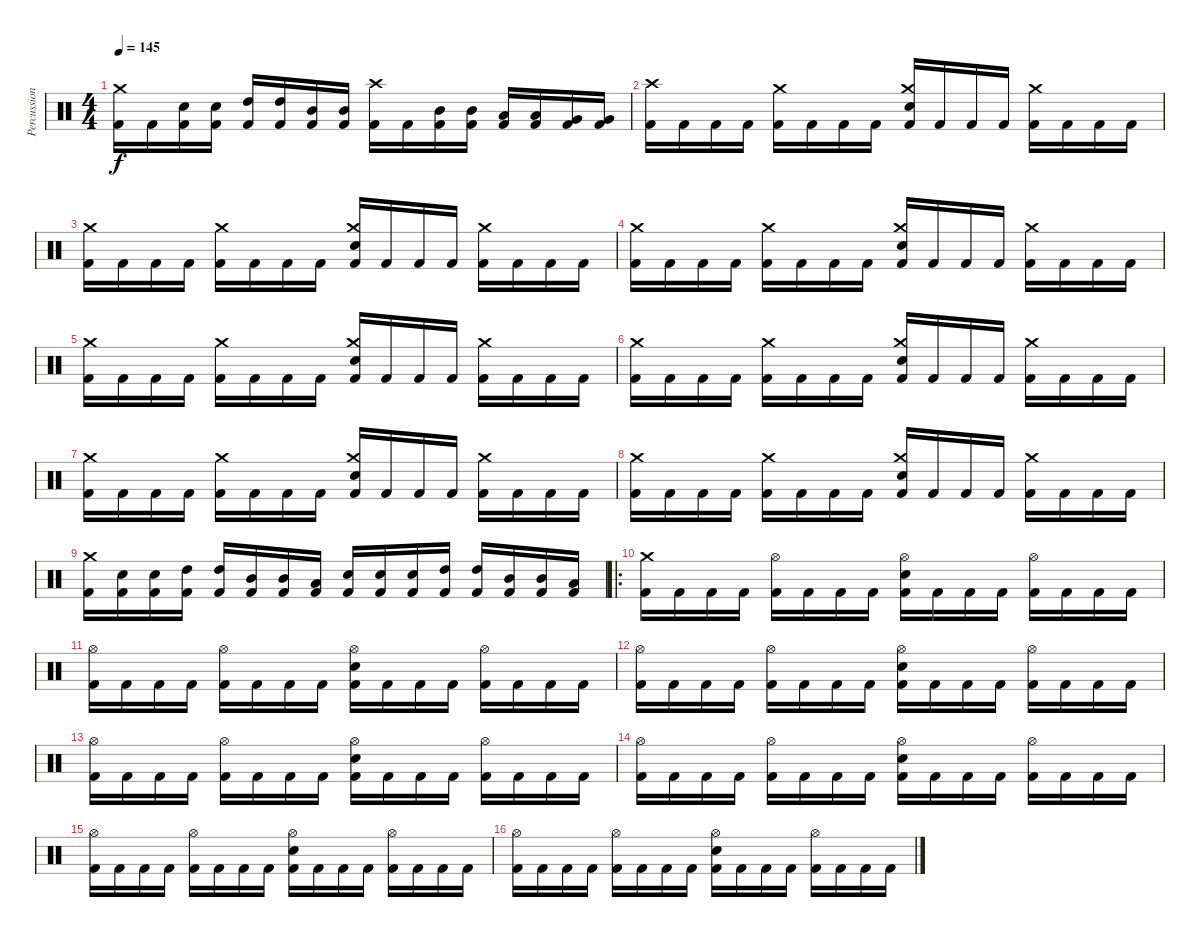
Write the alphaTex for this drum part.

\track ("Percussion" "Percussion") {instrument percussion}
\staff {score}
\articulation defaults
\ts (4 4)
\tempo 145
\clef neutral
\ks c
("Kick (hit) 2" "Crash medium (hit)").16{dy f} "Kick (hit) 2".16 ("Kick (hit) 2" "Electric Snare (hit)").16 ("Kick (hit) 2" "Electric Snare (hit)").16 ("Kick (hit) 2" "High Tom (hit)").16 ("Kick (hit) 2" "High Tom (hit)").16 ("Kick (hit) 2" "Mid Tom (hit)").16 ("Kick (hit) 2" "Mid Tom (hit)").16 ("Kick (hit) 2" "Crash high (hit)").16 "Kick (hit) 2".16 ("Kick (hit) 2" "Mid Tom (hit)").16 ("Kick (hit) 2" "Mid Tom (hit)").16 ("Kick (hit) 2" "Low Tom (hit)").16 ("Kick (hit) 2" "Low Tom (hit)").16 ("Kick (hit) 2" "Very Low Tom (hit)").16 ("Kick (hit) 2" "Very Low Tom (hit)").16 |
("Kick (hit) 2" "Crash high (hit)").16 "Kick (hit) 2".16 "Kick (hit) 2".16 "Kick (hit) 2".16 ("Kick (hit) 2" "Crash medium (hit)").16 "Kick (hit) 2".16 "Kick (hit) 2".16 "Kick (hit) 2".16 ("Kick (hit) 2" "Electric Snare (hit)" "Crash medium (hit)").16 "Kick (hit) 2".16 "Kick (hit) 2".16 "Kick (hit) 2".16 ("Kick (hit) 2" "Crash medium (hit)").16 "Kick (hit) 2".16 "Kick (hit) 2".16 "Kick (hit) 2".16 |
("Kick (hit) 2" "Crash medium (hit)").16 "Kick (hit) 2".16 "Kick (hit) 2".16 "Kick (hit) 2".16 ("Kick (hit) 2" "Crash medium (hit)").16 "Kick (hit) 2".16 "Kick (hit) 2".16 "Kick (hit) 2".16 ("Kick (hit) 2" "Electric Snare (hit)" "Crash medium (hit)").16 "Kick (hit) 2".16 "Kick (hit) 2".16 "Kick (hit) 2".16 ("Kick (hit) 2" "Crash medium (hit)").16 "Kick (hit) 2".16 "Kick (hit) 2".16 "Kick (hit) 2".16 |
("Kick (hit) 2" "Crash medium (hit)").16 "Kick (hit) 2".16 "Kick (hit) 2".16 "Kick (hit) 2".16 ("Kick (hit) 2" "Crash medium (hit)").16 "Kick (hit) 2".16 "Kick (hit) 2".16 "Kick (hit) 2".16 ("Kick (hit) 2" "Electric Snare (hit)" "Crash medium (hit)").16 "Kick (hit) 2".16 "Kick (hit) 2".16 "Kick (hit) 2".16 ("Kick (hit) 2" "Crash medium (hit)").16 "Kick (hit) 2".16 "Kick (hit) 2".16 "Kick (hit) 2".16 |
("Kick (hit) 2" "Crash medium (hit)").16 "Kick (hit) 2".16 "Kick (hit) 2".16 "Kick (hit) 2".16 ("Kick (hit) 2" "Crash medium (hit)").16 "Kick (hit) 2".16 "Kick (hit) 2".16 "Kick (hit) 2".16 ("Kick (hit) 2" "Electric Snare (hit)" "Crash medium (hit)").16 "Kick (hit) 2".16 "Kick (hit) 2".16 "Kick (hit) 2".16 ("Kick (hit) 2" "Crash medium (hit)").16 "Kick (hit) 2".16 "Kick (hit) 2".16 "Kick (hit) 2".16 |
("Kick (hit) 2" "Crash medium (hit)").16 "Kick (hit) 2".16 "Kick (hit) 2".16 "Kick (hit) 2".16 ("Kick (hit) 2" "Crash medium (hit)").16 "Kick (hit) 2".16 "Kick (hit) 2".16 "Kick (hit) 2".16 ("Kick (hit) 2" "Electric Snare (hit)" "Crash medium (hit)").16 "Kick (hit) 2".16 "Kick (hit) 2".16 "Kick (hit) 2".16 ("Kick (hit) 2" "Crash medium (hit)").16 "Kick (hit) 2".16 "Kick (hit) 2".16 "Kick (hit) 2".16 |
("Kick (hit) 2" "Crash medium (hit)").16 "Kick (hit) 2".16 "Kick (hit) 2".16 "Kick (hit) 2".16 ("Kick (hit) 2" "Crash medium (hit)").16 "Kick (hit) 2".16 "Kick (hit) 2".16 "Kick (hit) 2".16 ("Kick (hit) 2" "Electric Snare (hit)" "Crash medium (hit)").16 "Kick (hit) 2".16 "Kick (hit) 2".16 "Kick (hit) 2".16 ("Kick (hit) 2" "Crash medium (hit)").16 "Kick (hit) 2".16 "Kick (hit) 2".16 "Kick (hit) 2".16 |
("Kick (hit) 2" "Crash medium (hit)").16 "Kick (hit) 2".16 "Kick (hit) 2".16 "Kick (hit) 2".16 ("Kick (hit) 2" "Crash medium (hit)").16 "Kick (hit) 2".16 "Kick (hit) 2".16 "Kick (hit) 2".16 ("Kick (hit) 2" "Electric Snare (hit)" "Crash medium (hit)").16 "Kick (hit) 2".16 "Kick (hit) 2".16 "Kick (hit) 2".16 ("Kick (hit) 2" "Crash medium (hit)").16 "Kick (hit) 2".16 "Kick (hit) 2".16 "Kick (hit) 2".16 |
("Kick (hit) 2" "Crash medium (hit)").16 ("Kick (hit) 2" "Electric Snare (hit)").16 ("Kick (hit) 2" "Electric Snare (hit)").16 ("Kick (hit) 2" "High Tom (hit)").16 ("Kick (hit) 2" "High Tom (hit)").16 ("Kick (hit) 2" "Mid Tom (hit)").16 ("Kick (hit) 2" "Mid Tom (hit)").16 ("Kick (hit) 2" "Low Tom (hit)").16 ("Kick (hit) 2" "Electric Snare (hit)").16 ("Kick (hit) 2" "Electric Snare (hit)").16 ("Kick (hit) 2" "Electric Snare (hit)").16 ("Kick (hit) 2" "High Tom (hit)").16 ("Kick (hit) 2" "High Tom (hit)").16 ("Kick (hit) 2" "Mid Tom (hit)").16 ("Kick (hit) 2" "Mid Tom (hit)").16 ("Kick (hit) 2" "Low Tom (hit)").16 |
\ro
("Kick (hit) 2" "Crash medium (hit)").16 "Kick (hit) 2".16 "Kick (hit) 2".16 "Kick (hit) 2".16 ("Kick (hit) 2" "Hi-Hat (open)").16 "Kick (hit) 2".16 "Kick (hit) 2".16 "Kick (hit) 2".16 ("Kick (hit) 2" "Electric Snare (hit)" "Hi-Hat (open)").16 "Kick (hit) 2".16 "Kick (hit) 2".16 "Kick (hit) 2".16 ("Kick (hit) 2" "Hi-Hat (open)").16 "Kick (hit) 2".16 "Kick (hit) 2".16 "Kick (hit) 2".16 |
("Kick (hit) 2" "Hi-Hat (open)").16 "Kick (hit) 2".16 "Kick (hit) 2".16 "Kick (hit) 2".16 ("Kick (hit) 2" "Hi-Hat (open)").16 "Kick (hit) 2".16 "Kick (hit) 2".16 "Kick (hit) 2".16 ("Kick (hit) 2" "Electric Snare (hit)" "Hi-Hat (open)").16 "Kick (hit) 2".16 "Kick (hit) 2".16 "Kick (hit) 2".16 ("Kick (hit) 2" "Hi-Hat (open)").16 "Kick (hit) 2".16 "Kick (hit) 2".16 "Kick (hit) 2".16 |
("Kick (hit) 2" "Hi-Hat (open)").16 "Kick (hit) 2".16 "Kick (hit) 2".16 "Kick (hit) 2".16 ("Kick (hit) 2" "Hi-Hat (open)").16 "Kick (hit) 2".16 "Kick (hit) 2".16 "Kick (hit) 2".16 ("Kick (hit) 2" "Electric Snare (hit)" "Hi-Hat (open)").16 "Kick (hit) 2".16 "Kick (hit) 2".16 "Kick (hit) 2".16 ("Kick (hit) 2" "Hi-Hat (open)").16 "Kick (hit) 2".16 "Kick (hit) 2".16 "Kick (hit) 2".16 |
("Kick (hit) 2" "Hi-Hat (open)").16 "Kick (hit) 2".16 "Kick (hit) 2".16 "Kick (hit) 2".16 ("Kick (hit) 2" "Hi-Hat (open)").16 "Kick (hit) 2".16 "Kick (hit) 2".16 "Kick (hit) 2".16 ("Kick (hit) 2" "Electric Snare (hit)" "Hi-Hat (open)").16 "Kick (hit) 2".16 "Kick (hit) 2".16 "Kick (hit) 2".16 ("Kick (hit) 2" "Hi-Hat (open)").16 "Kick (hit) 2".16 "Kick (hit) 2".16 "Kick (hit) 2".16 |
("Kick (hit) 2" "Hi-Hat (open)").16 "Kick (hit) 2".16 "Kick (hit) 2".16 "Kick (hit) 2".16 ("Kick (hit) 2" "Hi-Hat (open)").16 "Kick (hit) 2".16 "Kick (hit) 2".16 "Kick (hit) 2".16 ("Kick (hit) 2" "Electric Snare (hit)" "Hi-Hat (open)").16 "Kick (hit) 2".16 "Kick (hit) 2".16 "Kick (hit) 2".16 ("Kick (hit) 2" "Hi-Hat (open)").16 "Kick (hit) 2".16 "Kick (hit) 2".16 "Kick (hit) 2".16 |
("Kick (hit) 2" "Hi-Hat (open)").16 "Kick (hit) 2".16 "Kick (hit) 2".16 "Kick (hit) 2".16 ("Kick (hit) 2" "Hi-Hat (open)").16 "Kick (hit) 2".16 "Kick (hit) 2".16 "Kick (hit) 2".16 ("Kick (hit) 2" "Electric Snare (hit)" "Hi-Hat (open)").16 "Kick (hit) 2".16 "Kick (hit) 2".16 "Kick (hit) 2".16 ("Kick (hit) 2" "Hi-Hat (open)").16 "Kick (hit) 2".16 "Kick (hit) 2".16 "Kick (hit) 2".16 |
("Kick (hit) 2" "Hi-Hat (open)").16 "Kick (hit) 2".16 "Kick (hit) 2".16 "Kick (hit) 2".16 ("Kick (hit) 2" "Hi-Hat (open)").16 "Kick (hit) 2".16 "Kick (hit) 2".16 "Kick (hit) 2".16 ("Kick (hit) 2" "Electric Snare (hit)" "Hi-Hat (open)").16 "Kick (hit) 2".16 "Kick (hit) 2".16 "Kick (hit) 2".16 ("Kick (hit) 2" "Hi-Hat (open)").16 "Kick (hit) 2".16 "Kick (hit) 2".16 "Kick (hit) 2".16
